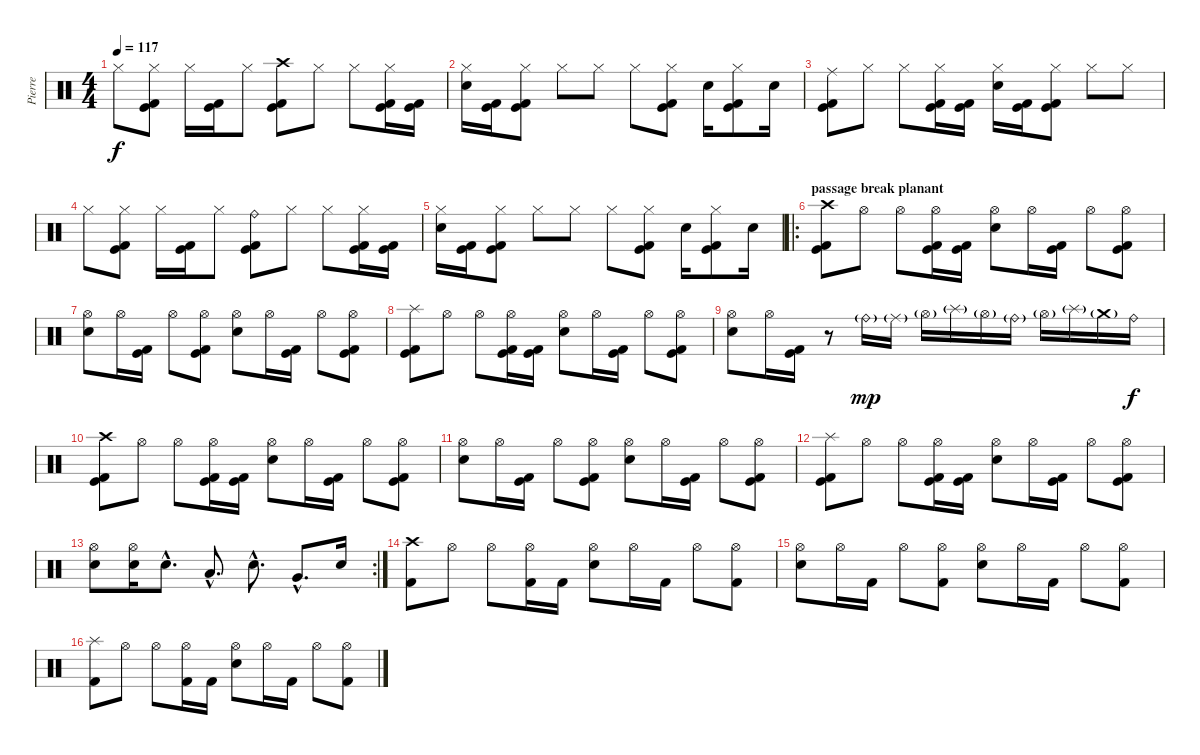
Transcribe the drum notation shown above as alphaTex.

\track ("Pierre" "Pierre") {instrument percussion}
\staff {score}
\articulation defaults
\ts (4 4)
\tempo 117
\clef neutral
\ks c "Hi-Hat (closed)".8{dy f}
("Hi-Hat (closed)" "Kick (hit)" "Kick (hit) 2").8 "Hi-Hat (closed)".16 ("Kick (hit)" "Kick (hit) 2").16 "Hi-Hat (closed)".8 ("Crash high (hit)" "Kick (hit)" "Kick (hit) 2").8 "Hi-Hat (closed)".8 "Hi-Hat (closed)".8 ("Hi-Hat (closed)" "Kick (hit)" "Kick (hit) 2").16 ("Kick (hit)" "Kick (hit) 2").16 |
("Hi-Hat (closed)" "Electric Snare (hit)").16 ("Kick (hit)" "Kick (hit) 2").16 ("Hi-Hat (closed)" "Kick (hit)" "Kick (hit) 2").8 "Hi-Hat (closed)".8 "Hi-Hat (closed)".8 "Hi-Hat (closed)".8 ("Hi-Hat (closed)" "Kick (hit)" "Kick (hit) 2").8 "Electric Snare (hit)".16 ("Hi-Hat (closed)" "Kick (hit)" "Kick (hit) 2").8 "Electric Snare (hit)".16 |
("Ride (middle)" "Kick (hit)" "Kick (hit) 2").8 "Hi-Hat (closed)".8 "Hi-Hat (closed)".8 ("Hi-Hat (closed)" "Kick (hit)" "Kick (hit) 2").16 ("Kick (hit)" "Kick (hit) 2").16 ("Hi-Hat (closed)" "Electric Snare (hit)").16 ("Kick (hit)" "Kick (hit) 2").16 ("Hi-Hat (closed)" "Kick (hit)" "Kick (hit) 2").8 "Hi-Hat (closed)".8 "Hi-Hat (closed)".8 |
"Hi-Hat (closed)".8 ("Hi-Hat (closed)" "Kick (hit)" "Kick (hit) 2").8 "Hi-Hat (closed)".16 ("Kick (hit)" "Kick (hit) 2").16 "Hi-Hat (closed)".8 ("Ride (bell)" "Kick (hit)" "Kick (hit) 2").8 "Hi-Hat (closed)".8 "Hi-Hat (closed)".8 ("Hi-Hat (closed)" "Kick (hit)" "Kick (hit) 2").16 ("Kick (hit)" "Kick (hit) 2").16 |
("Hi-Hat (closed)" "Electric Snare (hit)").16 ("Kick (hit)" "Kick (hit) 2").16 ("Hi-Hat (closed)" "Kick (hit)" "Kick (hit) 2").8 "Hi-Hat (closed)".8 "Hi-Hat (closed)".8 "Hi-Hat (closed)".8 ("Hi-Hat (closed)" "Kick (hit)" "Kick (hit) 2").8 "Electric Snare (hit)".16 ("Hi-Hat (closed)" "Kick (hit)" "Kick (hit) 2").8 "Electric Snare (hit)".16 |
\ro
\section ("" "passage break planant")
("Crash high (hit)" "Kick (hit)" "Kick (hit) 2").8 "Hi-Hat (open)".8 "Hi-Hat (open)".8 ("Hi-Hat (open)" "Kick (hit)" "Kick (hit) 2").16 ("Kick (hit)" "Kick (hit) 2").16 ("Hi-Hat (open)" "Electric Snare (hit)").8 "Hi-Hat (open)".16 ("Kick (hit)" "Kick (hit) 2").16 "Hi-Hat (open)".8 ("Hi-Hat (open)" "Kick (hit)" "Kick (hit) 2").8 |
("Hi-Hat (open)" "Electric Snare (hit)").8 "Hi-Hat (open)".16 ("Kick (hit)" "Kick (hit) 2").16 "Hi-Hat (open)".8 ("Hi-Hat (open)" "Kick (hit)" "Kick (hit) 2").8 ("Hi-Hat (open)" "Electric Snare (hit)").8 "Hi-Hat (open)".16 ("Kick (hit)" "Kick (hit) 2").16 "Hi-Hat (open)".8 ("Hi-Hat (open)" "Kick (hit)" "Kick (hit) 2").8 |
("Splash (hit)" "Kick (hit)" "Kick (hit) 2").8 "Hi-Hat (open)".8 "Hi-Hat (open)".8 ("Hi-Hat (open)" "Kick (hit)" "Kick (hit) 2").16 ("Kick (hit)" "Kick (hit) 2").16 ("Hi-Hat (open)" "Electric Snare (hit)").8 "Hi-Hat (open)".16 ("Kick (hit)" "Kick (hit) 2").16 "Hi-Hat (open)".8 ("Hi-Hat (open)" "Kick (hit)" "Kick (hit) 2").8 |
("Hi-Hat (open)" "Electric Snare (hit)").8 "Hi-Hat (open)".16 ("Kick (hit)" "Kick (hit) 2").16 r.8 "Ride (bell)"{g}.16{dy mp} "Ride (middle)"{g}.16 "Hi-Hat (open)"{g}.16 "Splash (hit)"{g}.16 "Hi-Hat (open)"{g}.16 "Ride (bell)"{g}.16 "Hi-Hat (open)"{g}.16 "Splash (hit)"{g}.16 "Crash medium (hit)"{g}.16 "Ride (bell)".16{dy f} |
("Crash high (hit)" "Kick (hit)" "Kick (hit) 2").8 "Hi-Hat (open)".8 "Hi-Hat (open)".8 ("Hi-Hat (open)" "Kick (hit)" "Kick (hit) 2").16 ("Kick (hit)" "Kick (hit) 2").16 ("Hi-Hat (open)" "Electric Snare (hit)").8 "Hi-Hat (open)".16 ("Kick (hit)" "Kick (hit) 2").16 "Hi-Hat (open)".8 ("Hi-Hat (open)" "Kick (hit)" "Kick (hit) 2").8 |
("Hi-Hat (open)" "Electric Snare (hit)").8 "Hi-Hat (open)".16 ("Kick (hit)" "Kick (hit) 2").16 "Hi-Hat (open)".8 ("Hi-Hat (open)" "Kick (hit)" "Kick (hit) 2").8 ("Hi-Hat (open)" "Electric Snare (hit)").8 "Hi-Hat (open)".16 ("Kick (hit)" "Kick (hit) 2").16 "Hi-Hat (open)".8 ("Hi-Hat (open)" "Kick (hit)" "Kick (hit) 2").8 |
("Splash (hit)" "Kick (hit)" "Kick (hit) 2").8 "Hi-Hat (open)".8 "Hi-Hat (open)".8 ("Hi-Hat (open)" "Kick (hit)" "Kick (hit) 2").16 ("Kick (hit)" "Kick (hit) 2").16 ("Hi-Hat (open)" "Electric Snare (hit)").8 "Hi-Hat (open)".16 ("Kick (hit)" "Kick (hit) 2").16 "Hi-Hat (open)".8 ("Hi-Hat (open)" "Kick (hit)" "Kick (hit) 2").8 |
\rc 2
("Hi-Hat (open)" "Electric Snare (hit)").8 ("Hi-Hat (open)" "Electric Snare (hit)").16 "Electric Snare (hit)"{hac}.8{d} "Low Tom (hit)"{hac}.8{d} "Electric Snare (hit)"{hac}.8{d} "Very Low Tom (hit)"{hac}.8{d} "Electric Snare (hit)".16 |
("Crash high (hit)" "Kick (hit) 2").8 "Hi-Hat (open)".8 "Hi-Hat (open)".8 ("Hi-Hat (open)" "Kick (hit) 2").16 "Kick (hit) 2".16 ("Hi-Hat (open)" "Electric Snare (hit)").8 "Hi-Hat (open)".16 "Kick (hit) 2".16 "Hi-Hat (open)".8 ("Hi-Hat (open)" "Kick (hit) 2").8 |
("Hi-Hat (open)" "Electric Snare (hit)").8 "Hi-Hat (open)".16 "Kick (hit) 2".16 "Hi-Hat (open)".8 ("Hi-Hat (open)" "Kick (hit) 2").8 ("Hi-Hat (open)" "Electric Snare (hit)").8 "Hi-Hat (open)".16 "Kick (hit) 2".16 "Hi-Hat (open)".8 ("Hi-Hat (open)" "Kick (hit) 2").8 |
("Splash (hit)" "Kick (hit) 2").8 "Hi-Hat (open)".8 "Hi-Hat (open)".8 ("Hi-Hat (open)" "Kick (hit) 2").16 "Kick (hit) 2".16 ("Hi-Hat (open)" "Electric Snare (hit)").8 "Hi-Hat (open)".16 "Kick (hit) 2".16 "Hi-Hat (open)".8 ("Hi-Hat (open)" "Kick (hit) 2").8
